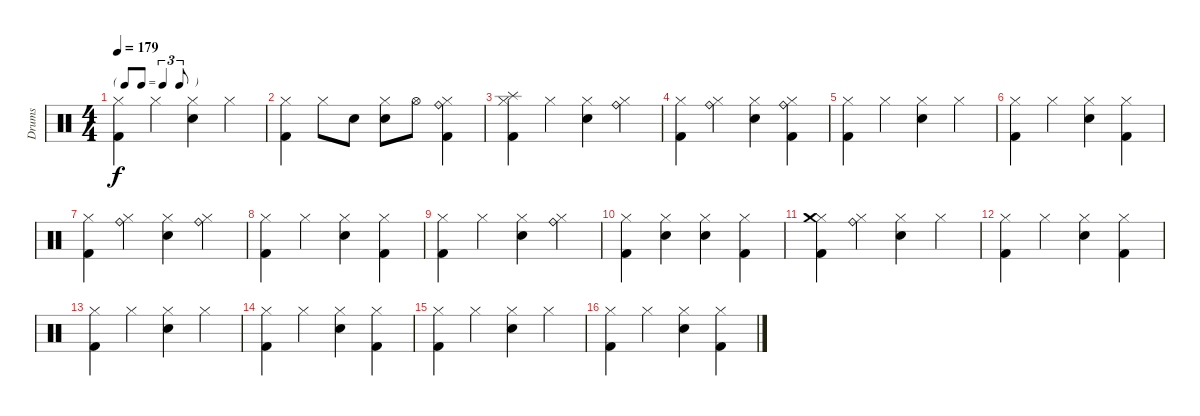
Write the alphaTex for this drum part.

\track ("Drums" "Drums") {instrument percussion}
\staff {score}
\articulation defaults
\ts (4 4)
\tf triplet8th
\tempo 179
\clef neutral
\ks c
("Hi-Hat (closed)" "Kick (hit) 2").4{dy f} "Hi-Hat (closed)".4 ("Hi-Hat (closed)" "Snare (hit) 2").4 "Hi-Hat (closed)".4 |
("Hi-Hat (closed)" "Kick (hit) 2").4 "Hi-Hat (closed)".8 "Snare (hit) 2".8 ("Hi-Hat (closed)" "Snare (hit) 2").8 "Hi-Hat (open)".8 ("Hi-Hat (closed)" "Ride (bell)" "Kick (hit) 2").4 |
("Hi-Hat (closed)" "Splash (hit)" "Kick (hit) 2").4 "Hi-Hat (closed)".4 ("Hi-Hat (closed)" "Snare (hit) 2").4 ("Hi-Hat (closed)" "Ride (bell)").4 |
("Hi-Hat (closed)" "Kick (hit) 2").4 ("Hi-Hat (closed)" "Ride (bell)").4 ("Hi-Hat (closed)" "Snare (hit) 2").4 ("Hi-Hat (closed)" "Ride (bell)" "Kick (hit) 2").4 |
("Hi-Hat (closed)" "Kick (hit) 2").4 "Hi-Hat (closed)".4 ("Hi-Hat (closed)" "Snare (hit) 2").4 "Hi-Hat (closed)".4 |
("Hi-Hat (closed)" "Kick (hit) 2").4 "Hi-Hat (closed)".4 ("Hi-Hat (closed)" "Snare (hit) 2").4 ("Hi-Hat (closed)" "Kick (hit) 2").4 |
("Hi-Hat (closed)" "Kick (hit) 2").4 ("Hi-Hat (closed)" "Ride (bell)").4 ("Hi-Hat (closed)" "Snare (hit) 2").4 ("Hi-Hat (closed)" "Ride (bell)").4 |
("Hi-Hat (closed)" "Kick (hit) 2").4 "Hi-Hat (closed)".4 ("Hi-Hat (closed)" "Snare (hit) 2").4 ("Hi-Hat (closed)" "Kick (hit) 2").4 |
("Hi-Hat (closed)" "Kick (hit) 2").4 "Hi-Hat (closed)".4 ("Hi-Hat (closed)" "Snare (hit) 2").4 ("Hi-Hat (closed)" "Ride (bell)").4 |
("Hi-Hat (closed)" "Kick (hit) 2").4 ("Hi-Hat (closed)" "Snare (hit) 2").4 ("Hi-Hat (closed)" "Snare (hit) 2").4 ("Hi-Hat (closed)" "Kick (hit) 2").4 |
("Hi-Hat (closed)" "Crash medium (hit)" "Kick (hit) 2").4 ("Hi-Hat (closed)" "Ride (bell)").4 ("Hi-Hat (closed)" "Snare (hit) 2").4 "Hi-Hat (closed)".4 |
("Hi-Hat (closed)" "Kick (hit) 2").4 "Hi-Hat (closed)".4 ("Hi-Hat (closed)" "Snare (hit) 2").4 ("Hi-Hat (closed)" "Kick (hit) 2").4 |
("Hi-Hat (closed)" "Kick (hit) 2").4 "Hi-Hat (closed)".4 ("Hi-Hat (closed)" "Snare (hit) 2").4 "Hi-Hat (closed)".4 |
("Hi-Hat (closed)" "Kick (hit) 2").4 "Hi-Hat (closed)".4 ("Hi-Hat (closed)" "Snare (hit) 2").4 ("Hi-Hat (closed)" "Kick (hit) 2").4 |
("Hi-Hat (closed)" "Kick (hit) 2").4 "Hi-Hat (closed)".4 ("Hi-Hat (closed)" "Snare (hit) 2").4 "Hi-Hat (closed)".4 |
("Hi-Hat (closed)" "Kick (hit) 2").4 "Hi-Hat (closed)".4 ("Hi-Hat (closed)" "Snare (hit) 2").4 ("Hi-Hat (closed)" "Kick (hit) 2").4
